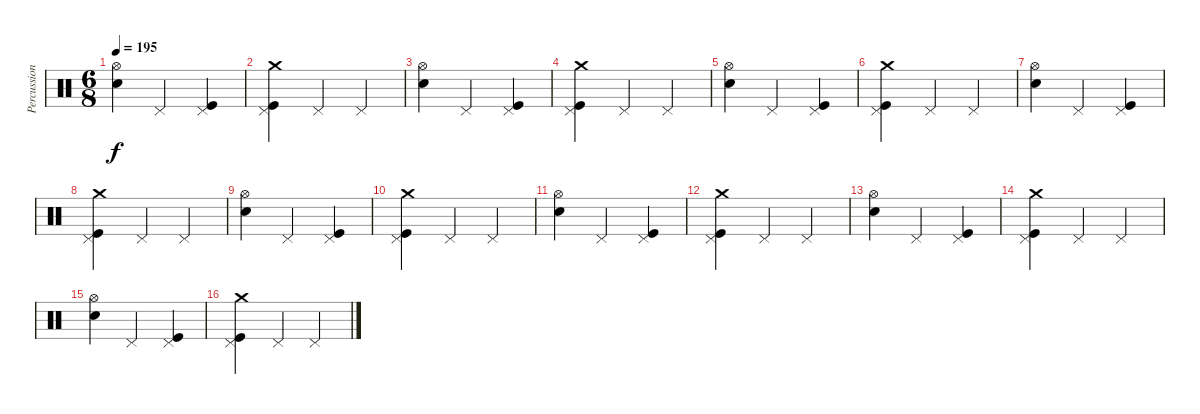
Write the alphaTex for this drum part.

\track ("Percussion" "Percussion") {instrument percussion}
\staff {score}
\articulation defaults
\ts (6 8)
\tempo 195
\clef neutral
\ks c
("Hi-Hat (open)" "Electric Snare (hit)").4{dy f} "Pedal Hi-Hat (hit)".4 ("Pedal Hi-Hat (hit)" "Kick (hit)").4 |
("Crash medium (hit)" "Pedal Hi-Hat (hit)" "Kick (hit)").4 "Pedal Hi-Hat (hit)".4 "Pedal Hi-Hat (hit)".4 |
("Hi-Hat (open)" "Electric Snare (hit)").4 "Pedal Hi-Hat (hit)".4 ("Pedal Hi-Hat (hit)" "Kick (hit)").4 |
("Crash medium (hit)" "Pedal Hi-Hat (hit)" "Kick (hit)").4 "Pedal Hi-Hat (hit)".4 "Pedal Hi-Hat (hit)".4 |
("Hi-Hat (open)" "Electric Snare (hit)").4 "Pedal Hi-Hat (hit)".4 ("Pedal Hi-Hat (hit)" "Kick (hit)").4 |
("Crash medium (hit)" "Pedal Hi-Hat (hit)" "Kick (hit)").4 "Pedal Hi-Hat (hit)".4 "Pedal Hi-Hat (hit)".4 |
("Hi-Hat (open)" "Electric Snare (hit)").4 "Pedal Hi-Hat (hit)".4 ("Pedal Hi-Hat (hit)" "Kick (hit)").4 |
("Crash medium (hit)" "Pedal Hi-Hat (hit)" "Kick (hit)").4 "Pedal Hi-Hat (hit)".4 "Pedal Hi-Hat (hit)".4 |
("Hi-Hat (open)" "Electric Snare (hit)").4 "Pedal Hi-Hat (hit)".4 ("Pedal Hi-Hat (hit)" "Kick (hit)").4 |
("Crash medium (hit)" "Pedal Hi-Hat (hit)" "Kick (hit)").4 "Pedal Hi-Hat (hit)".4 "Pedal Hi-Hat (hit)".4 |
("Hi-Hat (open)" "Electric Snare (hit)").4 "Pedal Hi-Hat (hit)".4 ("Pedal Hi-Hat (hit)" "Kick (hit)").4 |
("Crash medium (hit)" "Pedal Hi-Hat (hit)" "Kick (hit)").4 "Pedal Hi-Hat (hit)".4 "Pedal Hi-Hat (hit)".4 |
("Hi-Hat (open)" "Electric Snare (hit)").4 "Pedal Hi-Hat (hit)".4 ("Pedal Hi-Hat (hit)" "Kick (hit)").4 |
("Crash medium (hit)" "Pedal Hi-Hat (hit)" "Kick (hit)").4 "Pedal Hi-Hat (hit)".4 "Pedal Hi-Hat (hit)".4 |
("Hi-Hat (open)" "Electric Snare (hit)").4 "Pedal Hi-Hat (hit)".4 ("Pedal Hi-Hat (hit)" "Kick (hit)").4 |
("Crash medium (hit)" "Pedal Hi-Hat (hit)" "Kick (hit)").4 "Pedal Hi-Hat (hit)".4 "Pedal Hi-Hat (hit)".4
